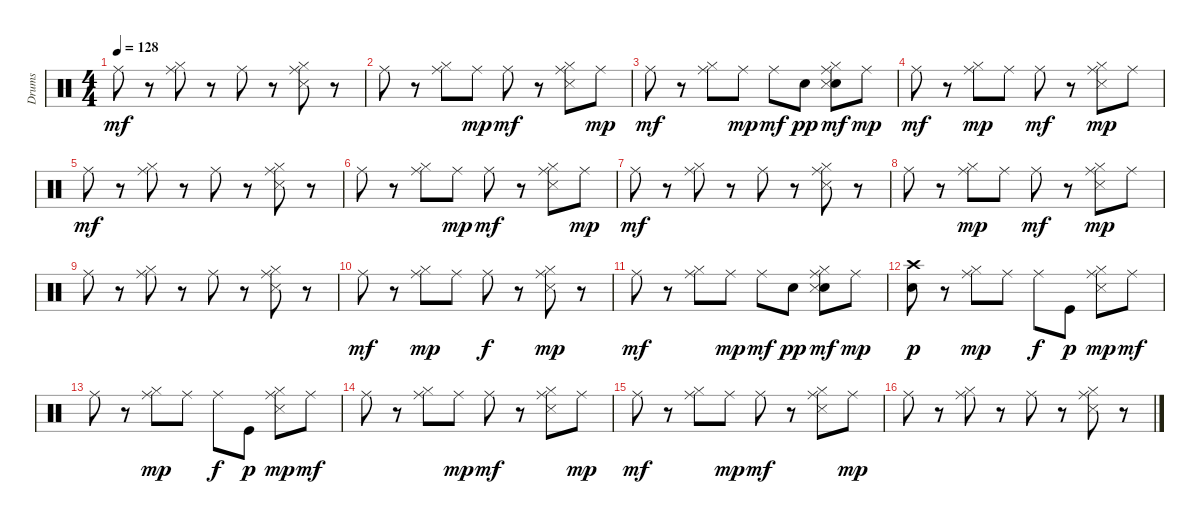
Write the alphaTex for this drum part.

\track ("Drums" "Drums") {instrument percussion}
\staff {score}
\articulation defaults
\ts (4 4)
\tempo 128
\clef neutral
\ks c "Ride (middle)".8{dy mf}
r.8 ("Hi-Hat (closed)" "Ride (middle)").8 r.8 "Ride (middle)".8 r.8 ("Hi-Hat (closed)" "Snare (side stick) 3" "Ride (middle)").8 r.8 |
"Ride (middle)".8 r.8 ("Hi-Hat (closed)" "Ride (middle)").8 "Ride (middle)".8{dy mp} "Ride (middle)".8{dy mf} r.8 ("Hi-Hat (closed)" "Snare (side stick) 3" "Ride (middle)").8 "Ride (middle)".8{dy mp} |
"Ride (middle)".8{dy mf} r.8 ("Hi-Hat (closed)" "Ride (middle)").8 "Ride (middle)".8{dy mp} "Ride (middle)".8{dy mf} "Snare (hit) 2".8{dy pp} ("Snare (hit) 2" "Hi-Hat (closed)" "Snare (side stick) 3" "Ride (middle)").8{dy mf} "Ride (middle)".8{dy mp} |
"Ride (middle)".8{dy mf} r.8 ("Hi-Hat (closed)" "Ride (middle)").8{dy mp} "Ride (middle)".8 "Ride (middle)".8{dy mf} r.8 ("Hi-Hat (closed)" "Snare (side stick) 3" "Ride (middle)").8{dy mp} "Ride (middle)".8 |
"Ride (middle)".8{dy mf} r.8 ("Hi-Hat (closed)" "Ride (middle)").8 r.8 "Ride (middle)".8 r.8 ("Hi-Hat (closed)" "Snare (side stick) 3" "Ride (middle)").8 r.8 |
"Ride (middle)".8 r.8 ("Hi-Hat (closed)" "Ride (middle)").8 "Ride (middle)".8{dy mp} "Ride (middle)".8{dy mf} r.8 ("Hi-Hat (closed)" "Snare (side stick) 3" "Ride (middle)").8 "Ride (middle)".8{dy mp} |
"Ride (middle)".8{dy mf} r.8 ("Hi-Hat (closed)" "Ride (middle)").8 r.8 "Ride (middle)".8 r.8 ("Hi-Hat (closed)" "Snare (side stick) 3" "Ride (middle)").8 r.8 |
"Ride (middle)".8 r.8 ("Hi-Hat (closed)" "Ride (middle)").8{dy mp} "Ride (middle)".8 "Ride (middle)".8{dy mf} r.8 ("Hi-Hat (closed)" "Snare (side stick) 3" "Ride (middle)").8{dy mp} "Ride (middle)".8 |
"Ride (middle)".8 r.8 ("Hi-Hat (closed)" "Ride (middle)").8 r.8 "Ride (middle)".8 r.8 ("Hi-Hat (closed)" "Snare (side stick) 3" "Ride (middle)").8 r.8 |
"Ride (middle)".8{dy mf} r.8 ("Hi-Hat (closed)" "Ride (middle)").8{dy mp} "Ride (middle)".8 "Ride (middle)".8{dy f} r.8 ("Hi-Hat (closed)" "Snare (side stick) 3" "Ride (middle)").8{dy mp} r.8 |
"Ride (middle)".8{dy mf} r.8 ("Hi-Hat (closed)" "Ride (middle)").8 "Ride (middle)".8{dy mp} "Ride (middle)".8{dy mf} "Snare (hit) 2".8{dy pp} ("Snare (hit) 2" "Hi-Hat (closed)" "Snare (side stick) 3" "Ride (middle)").8{dy mf} "Ride (middle)".8{dy mp} |
("Snare (hit) 2" "Crash high (hit)").8{dy p} r.8 ("Hi-Hat (closed)" "Ride (middle)").8{dy mp} "Ride (middle)".8 "Ride (middle)".8{dy f} "Kick (hit)".8{dy p} ("Hi-Hat (closed)" "Snare (side stick) 3" "Ride (middle)").8{dy mp} "Ride (middle)".8{dy mf} |
"Ride (middle)".8 r.8 ("Hi-Hat (closed)" "Ride (middle)").8{dy mp} "Ride (middle)".8 "Ride (middle)".8{dy f} "Kick (hit)".8{dy p} ("Hi-Hat (closed)" "Snare (side stick) 3" "Ride (middle)").8{dy mp} "Ride (middle)".8{dy mf} |
"Ride (middle)".8 r.8 ("Hi-Hat (closed)" "Ride (middle)").8 "Ride (middle)".8{dy mp} "Ride (middle)".8{dy mf} r.8 ("Hi-Hat (closed)" "Snare (side stick) 3" "Ride (middle)").8 "Ride (middle)".8{dy mp} |
"Ride (middle)".8{dy mf} r.8 ("Hi-Hat (closed)" "Ride (middle)").8 "Ride (middle)".8{dy mp} "Ride (middle)".8{dy mf} r.8 ("Hi-Hat (closed)" "Snare (side stick) 3" "Ride (middle)").8 "Ride (middle)".8{dy mp} |
"Ride (middle)".8 r.8 ("Hi-Hat (closed)" "Ride (middle)").8 r.8 "Ride (middle)".8 r.8 ("Hi-Hat (closed)" "Snare (side stick) 3" "Ride (middle)").8 r.8
